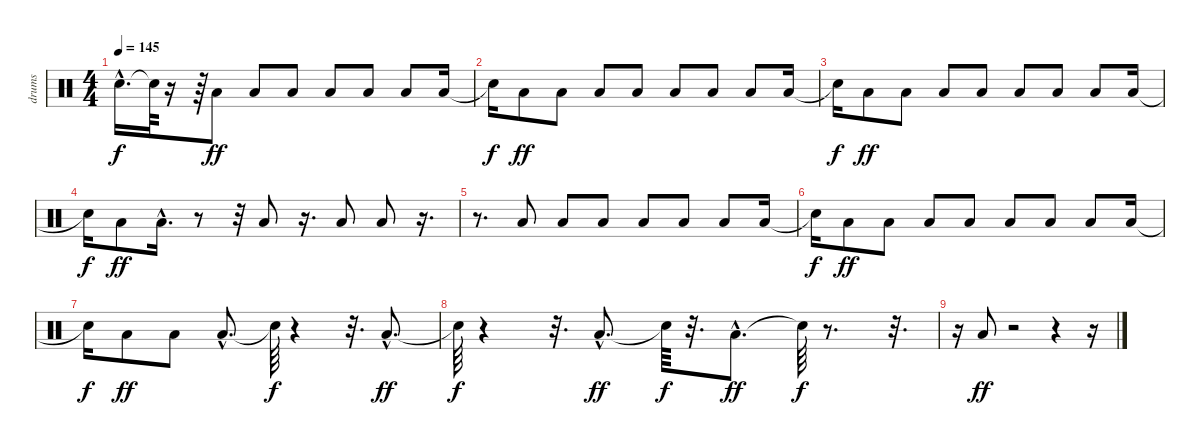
\track ("drums" "drums") {instrument percussion}
\staff {score}
\articulation defaults
\ts (4 4)
\tempo 145
\clef neutral
\ks c "Snare (hit)"{hac t}.16{d dy f} "Snare (hit)"{t}.64
r.16 r.64 "Low Tom (hit)".8{dy ff} "Low Floor Tom (hit)".8 "Low Floor Tom (hit)".8 "Low Floor Tom (hit)".8 "Low Floor Tom (hit)".8 "Low Floor Tom (hit)".8 "Low Floor Tom (hit)".16 |
"Snare (hit)"{t}.16{dy f} "Low Floor Tom (hit)".8{dy ff} "Low Floor Tom (hit)".8 "Low Floor Tom (hit)".8 "Low Floor Tom (hit)".8 "Low Floor Tom (hit)".8 "Low Floor Tom (hit)".8 "Low Floor Tom (hit)".8 "Low Floor Tom (hit)".16 |
"Snare (hit)"{t}.16{dy f} "Low Floor Tom (hit)".8{dy ff} "Low Floor Tom (hit)".8 "Low Tom (hit)".8 "Low Floor Tom (hit)".8 "Low Floor Tom (hit)".8 "Low Floor Tom (hit)".8 "Low Floor Tom (hit)".8 "Low Floor Tom (hit)".16 |
"Snare (hit)"{t}.16{dy f} "Low Floor Tom (hit)".8{dy ff} "Low Floor Tom (hit)"{hac}.16{d} r.8 r.32 "Low Tom (hit)".8 r.16{d} "Low Tom (hit)".8 "Low Tom (hit)".8 r.16{d} |
r.8{d} "Low Floor Tom (hit)".8 "Low Floor Tom (hit)".8 "Low Floor Tom (hit)".8 "Low Floor Tom (hit)".8 "Low Floor Tom (hit)".8 "Low Floor Tom (hit)".8 "Low Floor Tom (hit)".16 |
"Snare (hit)"{t}.16{dy f} "Low Floor Tom (hit)".8{dy ff} "Low Floor Tom (hit)".8 "Low Floor Tom (hit)".8 "Low Floor Tom (hit)".8 "Low Floor Tom (hit)".8 "Low Floor Tom (hit)".8 "Low Floor Tom (hit)".8 "Low Floor Tom (hit)".16 |
"Snare (hit)"{t}.16{dy f} "Low Floor Tom (hit)".8{dy ff} "Low Floor Tom (hit)".8 "Low Tom (hit)"{hac}.8{d} "Snare (hit)"{t}.64{dy f} r.4 r.32{d} "Low Tom (hit)"{hac}.8{d dy ff} |
"Snare (hit)"{t}.64{dy f} r.4 r.32{d} "Low Tom (hit)"{hac}.8{d dy ff} "Snare (hit)"{t}.64{dy f} r.32{d} "Low Tom (hit)"{hac}.8{d dy ff} "Snare (hit)"{t}.64{dy f} r.8{d} r.32{d} |
r.16 "Low Tom (hit)".8{dy ff} r.2 r.4 r.16
